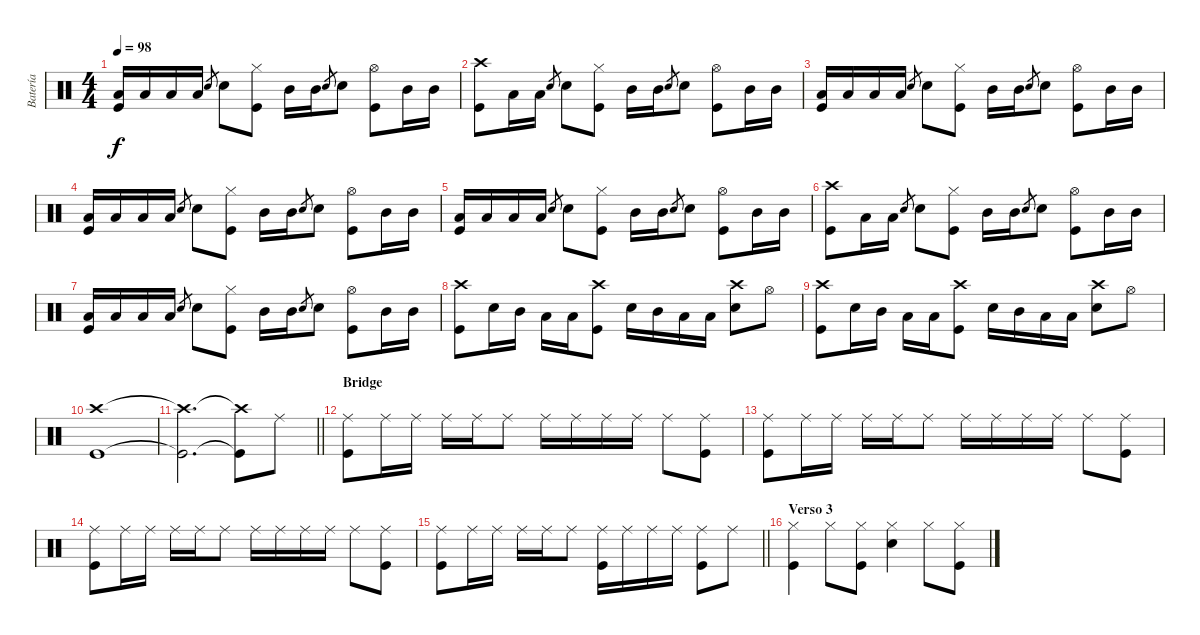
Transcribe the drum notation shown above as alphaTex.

\track ("Batería" "Batería") {instrument percussion}
\staff {score}
\articulation defaults
\ts (4 4)
\tempo 98
\clef neutral
\ks c
("Low Tom (hit)" "Kick (hit)").16{dy f} "Low Tom (hit)".16 "Low Floor Tom (hit)".16 "Low Floor Tom (hit)".16 "Snare (hit) 2".8{gr} "Snare (hit) 2".8 ("Hi-Hat (closed)" "Kick (hit)").8 "Mid Tom (hit)".16 "Mid Tom (hit)".16 "Snare (hit) 2".8{gr} "Snare (hit) 2".8 ("Hi-Hat (open)" "Kick (hit)").8 "Mid Tom (hit)".16 "Mid Tom (hit)".16 |
("Crash high (hit)" "Kick (hit)").8 "Low Tom (hit)".16 "Low Tom (hit)".16 "Snare (hit) 2".8{gr} "Snare (hit) 2".8 ("Hi-Hat (closed)" "Kick (hit)").8 "Mid Tom (hit)".16 "Mid Tom (hit)".16 "Snare (hit) 2".8{gr} "Snare (hit) 2".8 ("Hi-Hat (open)" "Kick (hit)").8 "Mid Tom (hit)".16 "Mid Tom (hit)".16 |
("Low Tom (hit)" "Kick (hit)").16 "Low Tom (hit)".16 "Low Floor Tom (hit)".16 "Low Floor Tom (hit)".16 "Snare (hit) 2".8{gr} "Snare (hit) 2".8 ("Hi-Hat (closed)" "Kick (hit)").8 "Mid Tom (hit)".16 "Mid Tom (hit)".16 "Snare (hit) 2".8{gr} "Snare (hit) 2".8 ("Hi-Hat (open)" "Kick (hit)").8 "Mid Tom (hit)".16 "Mid Tom (hit)".16 |
("Low Tom (hit)" "Kick (hit)").16 "Low Tom (hit)".16 "Low Floor Tom (hit)".16 "Low Floor Tom (hit)".16 "Snare (hit) 2".8{gr} "Snare (hit) 2".8 ("Hi-Hat (closed)" "Kick (hit)").8 "Mid Tom (hit)".16 "Mid Tom (hit)".16 "Snare (hit) 2".8{gr} "Snare (hit) 2".8 ("Hi-Hat (open)" "Kick (hit)").8 "Mid Tom (hit)".16 "Mid Tom (hit)".16 |
("Low Tom (hit)" "Kick (hit)").16 "Low Tom (hit)".16 "Low Floor Tom (hit)".16 "Low Floor Tom (hit)".16 "Snare (hit) 2".8{gr} "Snare (hit) 2".8 ("Hi-Hat (closed)" "Kick (hit)").8 "Mid Tom (hit)".16 "Mid Tom (hit)".16 "Snare (hit) 2".8{gr} "Snare (hit) 2".8 ("Hi-Hat (open)" "Kick (hit)").8 "Mid Tom (hit)".16 "Mid Tom (hit)".16 |
("Crash high (hit)" "Kick (hit)").8 "Low Tom (hit)".16 "Low Tom (hit)".16 "Snare (hit) 2".8{gr} "Snare (hit) 2".8 ("Hi-Hat (closed)" "Kick (hit)").8 "Mid Tom (hit)".16 "Mid Tom (hit)".16 "Snare (hit) 2".8{gr} "Snare (hit) 2".8 ("Hi-Hat (open)" "Kick (hit)").8 "Mid Tom (hit)".16 "Mid Tom (hit)".16 |
("Low Tom (hit)" "Kick (hit)").16 "Low Tom (hit)".16 "Low Floor Tom (hit)".16 "Low Floor Tom (hit)".16 "Snare (hit) 2".8{gr} "Snare (hit) 2".8 ("Hi-Hat (closed)" "Kick (hit)").8 "Mid Tom (hit)".16 "Mid Tom (hit)".16 "Snare (hit) 2".8{gr} "Snare (hit) 2".8 ("Hi-Hat (open)" "Kick (hit)").8 "Mid Tom (hit)".16 "Mid Tom (hit)".16 |
("Crash high (hit)" "Kick (hit)").8 "Snare (hit) 2".16 "Mid Tom (hit)".16 "Low Tom (hit)".16 "Low Floor Tom (hit)".16 ("Crash high (hit)" "Kick (hit)").8 "Snare (hit) 2".16 "Mid Tom (hit)".16 "Low Tom (hit)".16 "Low Floor Tom (hit)".16 ("Crash high (hit)" "Snare (hit) 2").8 "Hi-Hat (open)".8 |
("Crash high (hit)" "Kick (hit)").8 "Snare (hit) 2".16 "Mid Tom (hit)".16 "Low Tom (hit)".16 "Low Floor Tom (hit)".16 ("Crash high (hit)" "Kick (hit)").8 "Snare (hit) 2".16 "Mid Tom (hit)".16 "Low Tom (hit)".16 "Low Floor Tom (hit)".16 ("Crash high (hit)" "Snare (hit) 2").8 "Hi-Hat (open)".8 |
("Crash high (hit)" "Kick (hit)").1 |
\barLineRight lightlight
("Crash high (hit)"{t} "Kick (hit)"{t}).2{d} ("Crash high (hit)"{t} "Kick (hit)"{t}).8 "Ride (middle)".8 |
\section ("" "Bridge")
("Ride (middle)" "Kick (hit)").8 "Ride (middle)".16 "Ride (middle)".16 "Ride (middle)".16 "Ride (middle)".16 "Ride (middle)".8 "Ride (middle)".16 "Ride (middle)".16 "Ride (middle)".16 "Ride (middle)".16 "Ride (middle)".8 ("Ride (middle)" "Kick (hit)").8 |
("Ride (middle)" "Kick (hit)").8 "Ride (middle)".16 "Ride (middle)".16 "Ride (middle)".16 "Ride (middle)".16 "Ride (middle)".8 "Ride (middle)".16 "Ride (middle)".16 "Ride (middle)".16 "Ride (middle)".16 "Ride (middle)".8 ("Ride (middle)" "Kick (hit)").8 |
("Ride (middle)" "Kick (hit)").8 "Ride (middle)".16 "Ride (middle)".16 "Ride (middle)".16 "Ride (middle)".16 "Ride (middle)".8 "Ride (middle)".16 "Ride (middle)".16 "Ride (middle)".16 "Ride (middle)".16 "Ride (middle)".8 ("Ride (middle)" "Kick (hit)").8 |
\barLineRight lightlight
("Ride (middle)" "Kick (hit)").8 "Ride (middle)".16 "Ride (middle)".16 "Ride (middle)".16 "Ride (middle)".16 "Ride (middle)".8 ("Ride (middle)" "Kick (hit)").16 "Ride (middle)".16 "Ride (middle)".16 "Ride (middle)".16 ("Ride (middle)" "Kick (hit)").8 "Ride (middle)".8 |
\section ("" "Verso 3")
("Hi-Hat (closed)" "Kick (hit)").4 "Hi-Hat (closed)".8 ("Hi-Hat (closed)" "Kick (hit)").8 ("Hi-Hat (closed)" "Snare (hit) 2").4 "Hi-Hat (closed)".8 ("Hi-Hat (closed)" "Kick (hit)").8
